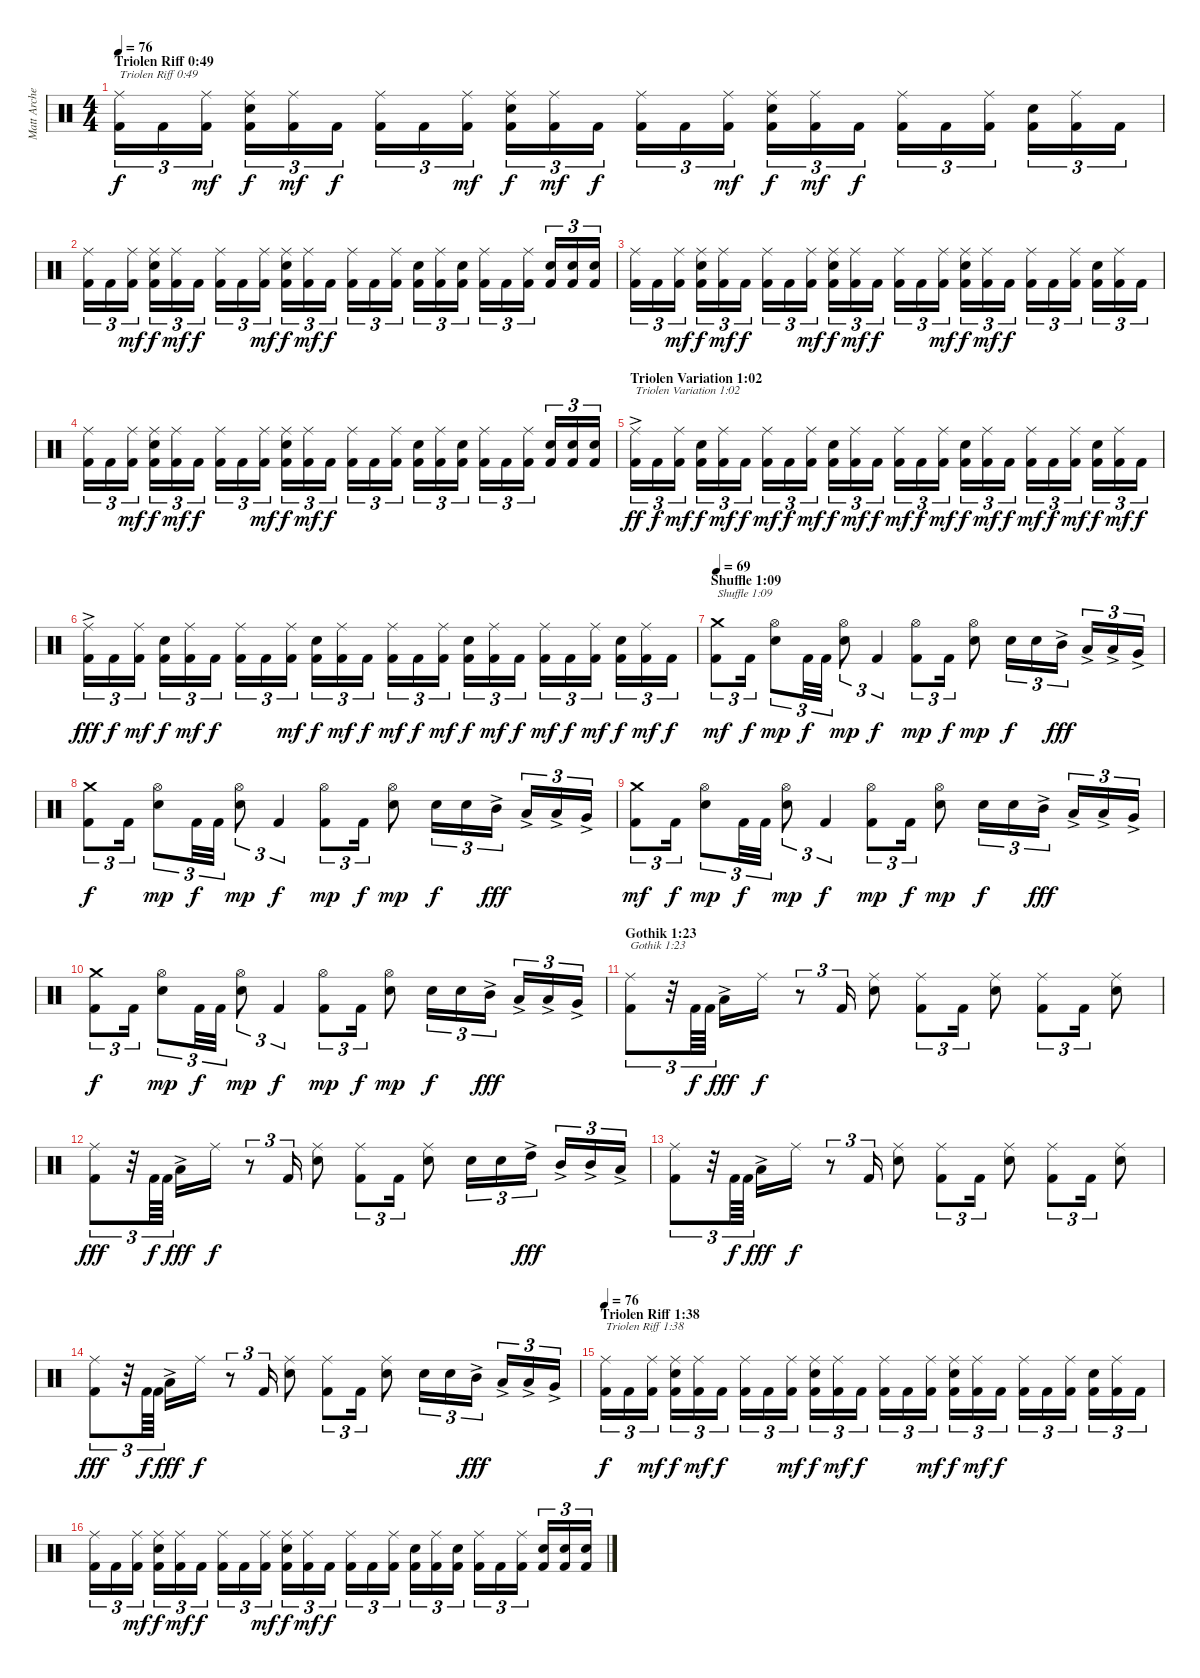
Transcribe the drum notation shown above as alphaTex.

\track ("Matt Archer" "Matt Arche") {instrument percussion}
\staff {score}
\articulation defaults
\ts (4 4)
\section ("" "Triolen Riff 0:49")
\tempo 76
\clef neutral
\ks c
("Kick (hit) 2" "Ride (middle)").16{tu (3 2) txt "Triolen Riff 0:49" dy f} "Kick (hit) 2".16{tu (3 2)} ("Kick (hit) 2" "Ride (middle)").16{tu (3 2) dy mf} ("Kick (hit) 2" "Electric Snare (hit)" "Ride (middle)").16{tu (3 2) dy f} ("Kick (hit) 2" "Ride (middle)").16{tu (3 2) dy mf} "Kick (hit) 2".16{tu (3 2) dy f} ("Kick (hit) 2" "Ride (middle)").16{tu (3 2)} "Kick (hit) 2".16{tu (3 2)} ("Kick (hit) 2" "Ride (middle)").16{tu (3 2) dy mf} ("Kick (hit) 2" "Electric Snare (hit)" "Ride (middle)").16{tu (3 2) dy f} ("Kick (hit) 2" "Ride (middle)").16{tu (3 2) dy mf} "Kick (hit) 2".16{tu (3 2) dy f} ("Kick (hit) 2" "Ride (middle)").16{tu (3 2)} "Kick (hit) 2".16{tu (3 2)} ("Kick (hit) 2" "Ride (middle)").16{tu (3 2) dy mf} ("Kick (hit) 2" "Electric Snare (hit)" "Ride (middle)").16{tu (3 2) dy f} ("Kick (hit) 2" "Ride (middle)").16{tu (3 2) dy mf} "Kick (hit) 2".16{tu (3 2) dy f} ("Kick (hit) 2" "Ride (middle)").16{tu (3 2)} "Kick (hit) 2".16{tu (3 2)} ("Kick (hit) 2" "Ride (middle)").16{tu (3 2)} ("Kick (hit) 2" "Electric Snare (hit)").16{tu (3 2)} ("Kick (hit) 2" "Ride (middle)").16{tu (3 2)} "Kick (hit) 2".16{tu (3 2)} |
("Kick (hit) 2" "Ride (middle)").16{tu (3 2)} "Kick (hit) 2".16{tu (3 2)} ("Kick (hit) 2" "Ride (middle)").16{tu (3 2) dy mf} ("Kick (hit) 2" "Electric Snare (hit)" "Ride (middle)").16{tu (3 2) dy f} ("Kick (hit) 2" "Ride (middle)").16{tu (3 2) dy mf} "Kick (hit) 2".16{tu (3 2) dy f} ("Kick (hit) 2" "Ride (middle)").16{tu (3 2)} "Kick (hit) 2".16{tu (3 2)} ("Kick (hit) 2" "Ride (middle)").16{tu (3 2) dy mf} ("Kick (hit) 2" "Electric Snare (hit)" "Ride (middle)").16{tu (3 2) dy f} ("Kick (hit) 2" "Ride (middle)").16{tu (3 2) dy mf} "Kick (hit) 2".16{tu (3 2) dy f} ("Kick (hit) 2" "Ride (middle)").16{tu (3 2)} "Kick (hit) 2".16{tu (3 2)} ("Kick (hit) 2" "Ride (middle)").16{tu (3 2)} ("Kick (hit) 2" "Electric Snare (hit)").16{tu (3 2)} ("Kick (hit) 2" "Ride (middle)").16{tu (3 2)} ("Kick (hit) 2" "Electric Snare (hit)").16{tu (3 2)} ("Kick (hit) 2" "Ride (middle)").16{tu (3 2)} "Kick (hit) 2".16{tu (3 2)} ("Kick (hit) 2" "Ride (middle)").16{tu (3 2)} ("Kick (hit) 2" "Electric Snare (hit)").16{tu (3 2)} ("Kick (hit) 2" "Electric Snare (hit)").16{tu (3 2)} ("Kick (hit) 2" "Electric Snare (hit)").16{tu (3 2)} |
("Kick (hit) 2" "Ride (middle)").16{tu (3 2)} "Kick (hit) 2".16{tu (3 2)} ("Kick (hit) 2" "Ride (middle)").16{tu (3 2) dy mf} ("Kick (hit) 2" "Electric Snare (hit)" "Ride (middle)").16{tu (3 2) dy f} ("Kick (hit) 2" "Ride (middle)").16{tu (3 2) dy mf} "Kick (hit) 2".16{tu (3 2) dy f} ("Kick (hit) 2" "Ride (middle)").16{tu (3 2)} "Kick (hit) 2".16{tu (3 2)} ("Kick (hit) 2" "Ride (middle)").16{tu (3 2) dy mf} ("Kick (hit) 2" "Electric Snare (hit)" "Ride (middle)").16{tu (3 2) dy f} ("Kick (hit) 2" "Ride (middle)").16{tu (3 2) dy mf} "Kick (hit) 2".16{tu (3 2) dy f} ("Kick (hit) 2" "Ride (middle)").16{tu (3 2)} "Kick (hit) 2".16{tu (3 2)} ("Kick (hit) 2" "Ride (middle)").16{tu (3 2) dy mf} ("Kick (hit) 2" "Electric Snare (hit)" "Ride (middle)").16{tu (3 2) dy f} ("Kick (hit) 2" "Ride (middle)").16{tu (3 2) dy mf} "Kick (hit) 2".16{tu (3 2) dy f} ("Kick (hit) 2" "Ride (middle)").16{tu (3 2)} "Kick (hit) 2".16{tu (3 2)} ("Kick (hit) 2" "Ride (middle)").16{tu (3 2)} ("Kick (hit) 2" "Electric Snare (hit)").16{tu (3 2)} ("Kick (hit) 2" "Ride (middle)").16{tu (3 2)} "Kick (hit) 2".16{tu (3 2)} |
("Kick (hit) 2" "Ride (middle)").16{tu (3 2)} "Kick (hit) 2".16{tu (3 2)} ("Kick (hit) 2" "Ride (middle)").16{tu (3 2) dy mf} ("Kick (hit) 2" "Electric Snare (hit)" "Ride (middle)").16{tu (3 2) dy f} ("Kick (hit) 2" "Ride (middle)").16{tu (3 2) dy mf} "Kick (hit) 2".16{tu (3 2) dy f} ("Kick (hit) 2" "Ride (middle)").16{tu (3 2)} "Kick (hit) 2".16{tu (3 2)} ("Kick (hit) 2" "Ride (middle)").16{tu (3 2) dy mf} ("Kick (hit) 2" "Electric Snare (hit)" "Ride (middle)").16{tu (3 2) dy f} ("Kick (hit) 2" "Ride (middle)").16{tu (3 2) dy mf} "Kick (hit) 2".16{tu (3 2) dy f} ("Kick (hit) 2" "Ride (middle)").16{tu (3 2)} "Kick (hit) 2".16{tu (3 2)} ("Kick (hit) 2" "Ride (middle)").16{tu (3 2)} ("Kick (hit) 2" "Electric Snare (hit)").16{tu (3 2)} ("Kick (hit) 2" "Ride (middle)").16{tu (3 2)} ("Kick (hit) 2" "Electric Snare (hit)").16{tu (3 2)} ("Kick (hit) 2" "Ride (middle)").16{tu (3 2)} "Kick (hit) 2".16{tu (3 2)} ("Kick (hit) 2" "Ride (middle)").16{tu (3 2)} ("Kick (hit) 2" "Electric Snare (hit)").16{tu (3 2)} ("Kick (hit) 2" "Electric Snare (hit)").16{tu (3 2)} ("Kick (hit) 2" "Electric Snare (hit)").16{tu (3 2)} |
\section ("" "Triolen Variation 1:02")
("Kick (hit) 2" "Ride (middle)"{ac}).16{tu (3 2) txt "Triolen Variation 1:02" dy ff} "Kick (hit) 2".16{tu (3 2) dy f} ("Kick (hit) 2" "Ride (middle)").16{tu (3 2) dy mf} ("Kick (hit) 2" "Electric Snare (hit)").16{tu (3 2) dy f} ("Kick (hit) 2" "Ride (middle)").16{tu (3 2) dy mf} "Kick (hit) 2".16{tu (3 2) dy f} ("Kick (hit) 2" "Ride (middle)").16{tu (3 2) dy mf} "Kick (hit) 2".16{tu (3 2) dy f} ("Kick (hit) 2" "Ride (middle)").16{tu (3 2) dy mf} ("Kick (hit) 2" "Electric Snare (hit)").16{tu (3 2) dy f} ("Kick (hit) 2" "Ride (middle)").16{tu (3 2) dy mf} "Kick (hit) 2".16{tu (3 2) dy f} ("Kick (hit) 2" "Ride (middle)").16{tu (3 2) dy mf} "Kick (hit) 2".16{tu (3 2) dy f} ("Kick (hit) 2" "Ride (middle)").16{tu (3 2) dy mf} ("Kick (hit) 2" "Electric Snare (hit)").16{tu (3 2) dy f} ("Kick (hit) 2" "Ride (middle)").16{tu (3 2) dy mf} "Kick (hit) 2".16{tu (3 2) dy f} ("Kick (hit) 2" "Ride (middle)").16{tu (3 2) dy mf} "Kick (hit) 2".16{tu (3 2) dy f} ("Kick (hit) 2" "Ride (middle)").16{tu (3 2) dy mf} ("Kick (hit) 2" "Electric Snare (hit)").16{tu (3 2) dy f} ("Kick (hit) 2" "Ride (middle)").16{tu (3 2) dy mf} "Kick (hit) 2".16{tu (3 2) dy f} |
("Kick (hit) 2" "Ride (middle)"{ac}).16{tu (3 2) dy fff} "Kick (hit) 2".16{tu (3 2) dy f} ("Kick (hit) 2" "Ride (middle)").16{tu (3 2) dy mf} ("Kick (hit) 2" "Electric Snare (hit)").16{tu (3 2) dy f} ("Kick (hit) 2" "Ride (middle)").16{tu (3 2) dy mf} "Kick (hit) 2".16{tu (3 2) dy f} ("Kick (hit) 2" "Ride (middle)").16{tu (3 2)} "Kick (hit) 2".16{tu (3 2)} ("Kick (hit) 2" "Ride (middle)").16{tu (3 2) dy mf} ("Kick (hit) 2" "Electric Snare (hit)").16{tu (3 2) dy f} ("Kick (hit) 2" "Ride (middle)").16{tu (3 2) dy mf} "Kick (hit) 2".16{tu (3 2) dy f} ("Kick (hit) 2" "Ride (middle)").16{tu (3 2) dy mf} "Kick (hit) 2".16{tu (3 2) dy f} ("Kick (hit) 2" "Ride (middle)").16{tu (3 2) dy mf} ("Kick (hit) 2" "Electric Snare (hit)").16{tu (3 2) dy f} ("Kick (hit) 2" "Ride (middle)").16{tu (3 2) dy mf} "Kick (hit) 2".16{tu (3 2) dy f} ("Kick (hit) 2" "Ride (middle)").16{tu (3 2) dy mf} "Kick (hit) 2".16{tu (3 2) dy f} ("Kick (hit) 2" "Ride (middle)").16{tu (3 2) dy mf} ("Kick (hit) 2" "Electric Snare (hit)").16{tu (3 2) dy f} ("Kick (hit) 2" "Ride (middle)").16{tu (3 2) dy mf} "Kick (hit) 2".16{tu (3 2) dy f} |
\section ("" "Shuffle 1:09")
\tempo 69
("Kick (hit) 2" "Crash medium (hit)").8{tu (3 2) txt "Shuffle 1:09" dy mf} "Kick (hit) 2".16{tu (3 2) dy f} ("Electric Snare (hit)" "Hi-Hat (open)").8{tu (3 2) dy mp} "Kick (hit) 2".32{tu (3 2) dy f} "Kick (hit) 2".32{tu (3 2)} ("Electric Snare (hit)" "Hi-Hat (open)").8{tu (3 2) dy mp} "Kick (hit) 2".4{tu (3 2) dy f} ("Kick (hit) 2" "Hi-Hat (open)").8{tu (3 2) dy mp} "Kick (hit) 2".16{tu (3 2) dy f} ("Electric Snare (hit)" "Hi-Hat (open)").8{dy mp} "Electric Snare (hit)".16{tu (3 2) dy f} "Electric Snare (hit)".16{tu (3 2)} "Mid Tom (hit)"{ac}.16{tu (3 2) dy fff} "Low Tom (hit)"{ac}.16{tu (3 2)} "Low Tom (hit)"{ac}.16{tu (3 2)} "Very Low Tom (hit)"{ac}.16{tu (3 2)} |
("Kick (hit) 2" "Crash medium (hit)").8{tu (3 2) dy f} "Kick (hit) 2".16{tu (3 2)} ("Electric Snare (hit)" "Hi-Hat (open)").8{tu (3 2) dy mp} "Kick (hit) 2".32{tu (3 2) dy f} "Kick (hit) 2".32{tu (3 2)} ("Electric Snare (hit)" "Hi-Hat (open)").8{tu (3 2) dy mp} "Kick (hit) 2".4{tu (3 2) dy f} ("Kick (hit) 2" "Hi-Hat (open)").8{tu (3 2) dy mp} "Kick (hit) 2".16{tu (3 2) dy f} ("Electric Snare (hit)" "Hi-Hat (open)").8{dy mp} "Electric Snare (hit)".16{tu (3 2) dy f} "Electric Snare (hit)".16{tu (3 2)} "Mid Tom (hit)"{ac}.16{tu (3 2) dy fff} "Low Tom (hit)"{ac}.16{tu (3 2)} "Low Tom (hit)"{ac}.16{tu (3 2)} "Very Low Tom (hit)"{ac}.16{tu (3 2)} |
("Kick (hit) 2" "Crash medium (hit)").8{tu (3 2) dy mf} "Kick (hit) 2".16{tu (3 2) dy f} ("Electric Snare (hit)" "Hi-Hat (open)").8{tu (3 2) dy mp} "Kick (hit) 2".32{tu (3 2) dy f} "Kick (hit) 2".32{tu (3 2)} ("Electric Snare (hit)" "Hi-Hat (open)").8{tu (3 2) dy mp} "Kick (hit) 2".4{tu (3 2) dy f} ("Kick (hit) 2" "Hi-Hat (open)").8{tu (3 2) dy mp} "Kick (hit) 2".16{tu (3 2) dy f} ("Electric Snare (hit)" "Hi-Hat (open)").8{dy mp} "Electric Snare (hit)".16{tu (3 2) dy f} "Electric Snare (hit)".16{tu (3 2)} "Mid Tom (hit)"{ac}.16{tu (3 2) dy fff} "Low Tom (hit)"{ac}.16{tu (3 2)} "Low Tom (hit)"{ac}.16{tu (3 2)} "Very Low Tom (hit)"{ac}.16{tu (3 2)} |
("Kick (hit) 2" "Crash medium (hit)").8{tu (3 2) dy f} "Kick (hit) 2".16{tu (3 2)} ("Electric Snare (hit)" "Hi-Hat (open)").8{tu (3 2) dy mp} "Kick (hit) 2".32{tu (3 2) dy f} "Kick (hit) 2".32{tu (3 2)} ("Electric Snare (hit)" "Hi-Hat (open)").8{tu (3 2) dy mp} "Kick (hit) 2".4{tu (3 2) dy f} ("Kick (hit) 2" "Hi-Hat (open)").8{tu (3 2) dy mp} "Kick (hit) 2".16{tu (3 2) dy f} ("Electric Snare (hit)" "Hi-Hat (open)").8{dy mp} "Electric Snare (hit)".16{tu (3 2) dy f} "Electric Snare (hit)".16{tu (3 2)} "Mid Tom (hit)"{ac}.16{tu (3 2) dy fff} "Low Tom (hit)"{ac}.16{tu (3 2)} "Low Tom (hit)"{ac}.16{tu (3 2)} "Very Low Tom (hit)"{ac}.16{tu (3 2)} |
\section ("" "Gothik 1:23")
("Kick (hit) 2" "Ride (middle)").8{tu (3 2) txt "Gothik 1:23"} r.32{tu (3 2)} "Kick (hit) 2".64{tu (3 2) dy f} "Kick (hit) 2".64{tu (3 2)} "Low Tom (hit)"{ac}.16{dy fff} "Ride (middle)".16{dy f} r.8{tu (3 2)} "Kick (hit) 2".16{tu (3 2)} ("Electric Snare (hit)" "Ride (middle)").8 ("Kick (hit) 2" "Ride (middle)").8{tu (3 2)} "Kick (hit) 2".16{tu (3 2)} ("Electric Snare (hit)" "Ride (middle)").8 ("Kick (hit) 2" "Ride (middle)").8{tu (3 2)} "Kick (hit) 2".16{tu (3 2)} ("Electric Snare (hit)" "Ride (middle)").8 |
("Kick (hit) 2" "Ride (middle)").8{tu (3 2) dy fff} r.32{tu (3 2)} "Kick (hit) 2".64{tu (3 2) dy f} "Kick (hit) 2".64{tu (3 2)} "Low Tom (hit)"{ac}.16{dy fff} "Ride (middle)".16{dy f} r.8{tu (3 2)} "Kick (hit) 2".16{tu (3 2)} ("Electric Snare (hit)" "Ride (middle)").8 ("Kick (hit) 2" "Ride (middle)").8{tu (3 2)} "Kick (hit) 2".16{tu (3 2)} ("Electric Snare (hit)" "Ride (middle)").8 "Electric Snare (hit)".16{tu (3 2)} "Electric Snare (hit)".16{tu (3 2)} "High Tom (hit)"{ac}.16{tu (3 2) dy fff} "Mid Tom (hit)"{ac}.16{tu (3 2)} "Mid Tom (hit)"{ac}.16{tu (3 2)} "Low Tom (hit)"{ac}.16{tu (3 2)} |
("Kick (hit) 2" "Ride (middle)").8{tu (3 2)} r.32{tu (3 2)} "Kick (hit) 2".64{tu (3 2) dy f} "Kick (hit) 2".64{tu (3 2)} "Low Tom (hit)"{ac}.16{dy fff} "Ride (middle)".16{dy f} r.8{tu (3 2)} "Kick (hit) 2".16{tu (3 2)} ("Electric Snare (hit)" "Ride (middle)").8 ("Kick (hit) 2" "Ride (middle)").8{tu (3 2)} "Kick (hit) 2".16{tu (3 2)} ("Electric Snare (hit)" "Ride (middle)").8 ("Kick (hit) 2" "Ride (middle)").8{tu (3 2)} "Kick (hit) 2".16{tu (3 2)} ("Electric Snare (hit)" "Ride (middle)").8 |
("Kick (hit) 2" "Ride (middle)").8{tu (3 2) dy fff} r.32{tu (3 2)} "Kick (hit) 2".64{tu (3 2) dy f} "Kick (hit) 2".64{tu (3 2)} "Low Tom (hit)"{ac}.16{dy fff} "Ride (middle)".16{dy f} r.8{tu (3 2)} "Kick (hit) 2".16{tu (3 2)} ("Electric Snare (hit)" "Ride (middle)").8 ("Kick (hit) 2" "Ride (middle)").8{tu (3 2)} "Kick (hit) 2".16{tu (3 2)} ("Electric Snare (hit)" "Ride (middle)").8 "Electric Snare (hit)".16{tu (3 2)} "Electric Snare (hit)".16{tu (3 2)} "Mid Tom (hit)"{ac}.16{tu (3 2) dy fff} "Low Tom (hit)"{ac}.16{tu (3 2)} "Low Tom (hit)"{ac}.16{tu (3 2)} "Very Low Tom (hit)"{ac}.16{tu (3 2)} |
\section ("" "Triolen Riff 1:38")
\tempo 76
("Kick (hit) 2" "Ride (middle)").16{tu (3 2) txt "Triolen Riff 1:38" dy f} "Kick (hit) 2".16{tu (3 2)} ("Kick (hit) 2" "Ride (middle)").16{tu (3 2) dy mf} ("Kick (hit) 2" "Electric Snare (hit)" "Ride (middle)").16{tu (3 2) dy f} ("Kick (hit) 2" "Ride (middle)").16{tu (3 2) dy mf} "Kick (hit) 2".16{tu (3 2) dy f} ("Kick (hit) 2" "Ride (middle)").16{tu (3 2)} "Kick (hit) 2".16{tu (3 2)} ("Kick (hit) 2" "Ride (middle)").16{tu (3 2) dy mf} ("Kick (hit) 2" "Electric Snare (hit)" "Ride (middle)").16{tu (3 2) dy f} ("Kick (hit) 2" "Ride (middle)").16{tu (3 2) dy mf} "Kick (hit) 2".16{tu (3 2) dy f} ("Kick (hit) 2" "Ride (middle)").16{tu (3 2)} "Kick (hit) 2".16{tu (3 2)} ("Kick (hit) 2" "Ride (middle)").16{tu (3 2) dy mf} ("Kick (hit) 2" "Electric Snare (hit)" "Ride (middle)").16{tu (3 2) dy f} ("Kick (hit) 2" "Ride (middle)").16{tu (3 2) dy mf} "Kick (hit) 2".16{tu (3 2) dy f} ("Kick (hit) 2" "Ride (middle)").16{tu (3 2)} "Kick (hit) 2".16{tu (3 2)} ("Kick (hit) 2" "Ride (middle)").16{tu (3 2)} ("Kick (hit) 2" "Electric Snare (hit)").16{tu (3 2)} ("Kick (hit) 2" "Ride (middle)").16{tu (3 2)} "Kick (hit) 2".16{tu (3 2)} |
("Kick (hit) 2" "Ride (middle)").16{tu (3 2)} "Kick (hit) 2".16{tu (3 2)} ("Kick (hit) 2" "Ride (middle)").16{tu (3 2) dy mf} ("Kick (hit) 2" "Electric Snare (hit)" "Ride (middle)").16{tu (3 2) dy f} ("Kick (hit) 2" "Ride (middle)").16{tu (3 2) dy mf} "Kick (hit) 2".16{tu (3 2) dy f} ("Kick (hit) 2" "Ride (middle)").16{tu (3 2)} "Kick (hit) 2".16{tu (3 2)} ("Kick (hit) 2" "Ride (middle)").16{tu (3 2) dy mf} ("Kick (hit) 2" "Electric Snare (hit)" "Ride (middle)").16{tu (3 2) dy f} ("Kick (hit) 2" "Ride (middle)").16{tu (3 2) dy mf} "Kick (hit) 2".16{tu (3 2) dy f} ("Kick (hit) 2" "Ride (middle)").16{tu (3 2)} "Kick (hit) 2".16{tu (3 2)} ("Kick (hit) 2" "Ride (middle)").16{tu (3 2)} ("Kick (hit) 2" "Electric Snare (hit)").16{tu (3 2)} ("Kick (hit) 2" "Ride (middle)").16{tu (3 2)} ("Kick (hit) 2" "Electric Snare (hit)").16{tu (3 2)} ("Kick (hit) 2" "Ride (middle)").16{tu (3 2)} "Kick (hit) 2".16{tu (3 2)} ("Kick (hit) 2" "Ride (middle)").16{tu (3 2)} ("Kick (hit) 2" "Electric Snare (hit)").16{tu (3 2)} ("Kick (hit) 2" "Electric Snare (hit)").16{tu (3 2)} ("Kick (hit) 2" "Electric Snare (hit)").16{tu (3 2)}
